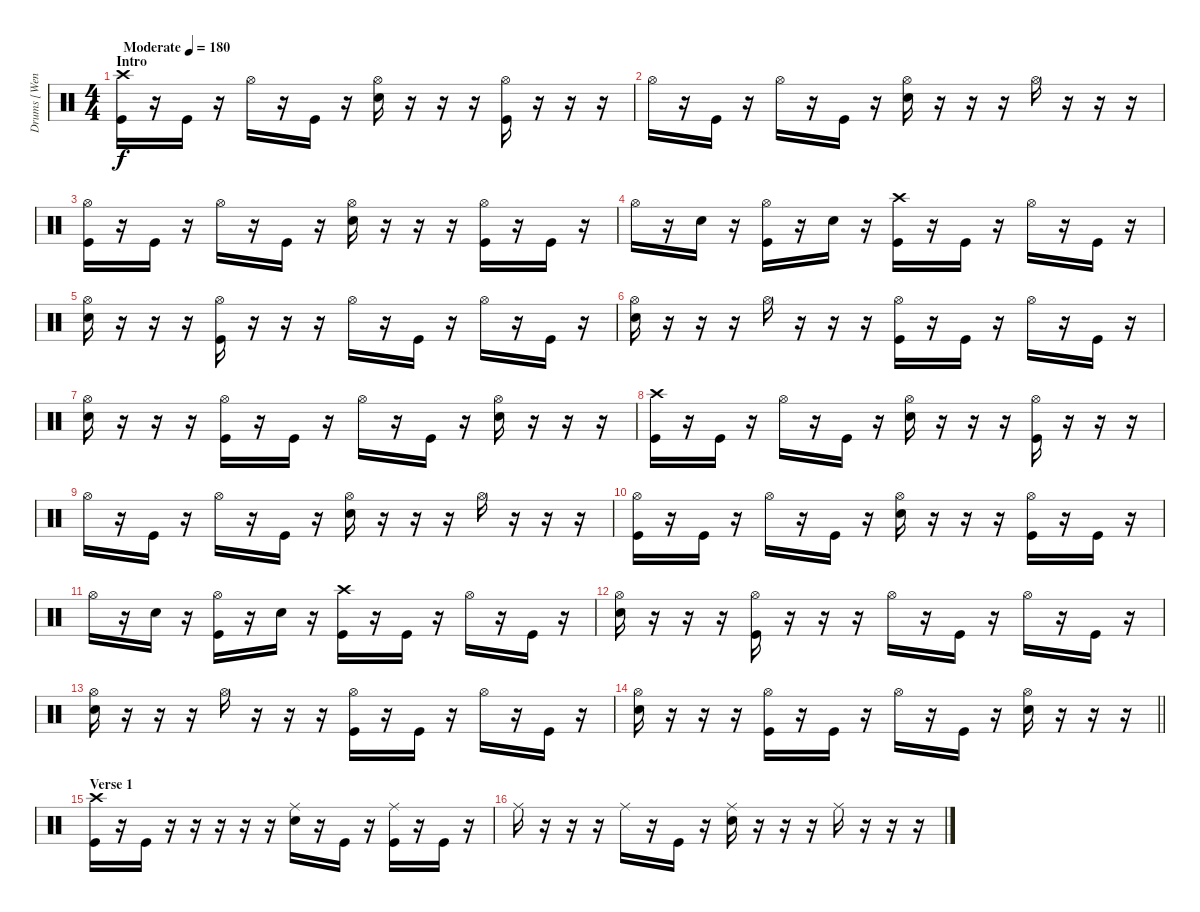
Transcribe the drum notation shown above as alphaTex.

\track ("Drums [Wengren]" "Drums [Wen") {instrument percussion}
\staff {score}
\articulation defaults
\ts (4 4)
\section ("" "Intro")
\tempo (180 "Moderate")
\clef neutral
\ks c
("Crash high (hit)" "Kick (hit)").16{dy f} r.16 "Kick (hit)".16 r.16 "Hi-Hat (open)".16 r.16 "Kick (hit)".16 r.16 ("Hi-Hat (open)" "Electric Snare (hit)").16 r.16 r.16 r.16 ("Hi-Hat (open)" "Kick (hit)").16 r.16 r.16 r.16 |
"Hi-Hat (open)".16 r.16 "Kick (hit)".16 r.16 "Hi-Hat (open)".16 r.16 "Kick (hit)".16 r.16 ("Hi-Hat (open)" "Electric Snare (hit)").16 r.16 r.16 r.16 "Hi-Hat (open)".16 r.16 r.16 r.16 |
("Hi-Hat (open)" "Kick (hit)").16 r.16 "Kick (hit)".16 r.16 "Hi-Hat (open)".16 r.16 "Kick (hit)".16 r.16 ("Hi-Hat (open)" "Electric Snare (hit)").16 r.16 r.16 r.16 ("Hi-Hat (open)" "Kick (hit)").16 r.16 "Kick (hit)".16 r.16 |
"Hi-Hat (open)".16 r.16 "Electric Snare (hit)".16 r.16 ("Hi-Hat (open)" "Kick (hit)").16 r.16 "Electric Snare (hit)".16 r.16 ("Crash high (hit)" "Kick (hit)").16 r.16 "Kick (hit)".16 r.16 "Hi-Hat (open)".16 r.16 "Kick (hit)".16 r.16 |
("Hi-Hat (open)" "Electric Snare (hit)").16 r.16 r.16 r.16 ("Hi-Hat (open)" "Kick (hit)").16 r.16 r.16 r.16 "Hi-Hat (open)".16 r.16 "Kick (hit)".16 r.16 "Hi-Hat (open)".16 r.16 "Kick (hit)".16 r.16 |
("Hi-Hat (open)" "Electric Snare (hit)").16 r.16 r.16 r.16 "Hi-Hat (open)".16 r.16 r.16 r.16 ("Hi-Hat (open)" "Kick (hit)").16 r.16 "Kick (hit)".16 r.16 "Hi-Hat (open)".16 r.16 "Kick (hit)".16 r.16 |
("Hi-Hat (open)" "Electric Snare (hit)").16 r.16 r.16 r.16 ("Hi-Hat (open)" "Kick (hit)").16 r.16 "Kick (hit)".16 r.16 "Hi-Hat (open)".16 r.16 "Kick (hit)".16 r.16 ("Hi-Hat (open)" "Electric Snare (hit)").16 r.16 r.16 r.16 |
("Crash high (hit)" "Kick (hit)").16 r.16 "Kick (hit)".16 r.16 "Hi-Hat (open)".16 r.16 "Kick (hit)".16 r.16 ("Hi-Hat (open)" "Electric Snare (hit)").16 r.16 r.16 r.16 ("Hi-Hat (open)" "Kick (hit)").16 r.16 r.16 r.16 |
"Hi-Hat (open)".16 r.16 "Kick (hit)".16 r.16 "Hi-Hat (open)".16 r.16 "Kick (hit)".16 r.16 ("Hi-Hat (open)" "Electric Snare (hit)").16 r.16 r.16 r.16 "Hi-Hat (open)".16 r.16 r.16 r.16 |
("Hi-Hat (open)" "Kick (hit)").16 r.16 "Kick (hit)".16 r.16 "Hi-Hat (open)".16 r.16 "Kick (hit)".16 r.16 ("Hi-Hat (open)" "Electric Snare (hit)").16 r.16 r.16 r.16 ("Hi-Hat (open)" "Kick (hit)").16 r.16 "Kick (hit)".16 r.16 |
"Hi-Hat (open)".16 r.16 "Electric Snare (hit)".16 r.16 ("Hi-Hat (open)" "Kick (hit)").16 r.16 "Electric Snare (hit)".16 r.16 ("Crash high (hit)" "Kick (hit)").16 r.16 "Kick (hit)".16 r.16 "Hi-Hat (open)".16 r.16 "Kick (hit)".16 r.16 |
("Hi-Hat (open)" "Electric Snare (hit)").16 r.16 r.16 r.16 ("Hi-Hat (open)" "Kick (hit)").16 r.16 r.16 r.16 "Hi-Hat (open)".16 r.16 "Kick (hit)".16 r.16 "Hi-Hat (open)".16 r.16 "Kick (hit)".16 r.16 |
("Hi-Hat (open)" "Electric Snare (hit)").16 r.16 r.16 r.16 "Hi-Hat (open)".16 r.16 r.16 r.16 ("Hi-Hat (open)" "Kick (hit)").16 r.16 "Kick (hit)".16 r.16 "Hi-Hat (open)".16 r.16 "Kick (hit)".16 r.16 |
\barLineRight lightlight
("Hi-Hat (open)" "Electric Snare (hit)").16 r.16 r.16 r.16 ("Hi-Hat (open)" "Kick (hit)").16 r.16 "Kick (hit)".16 r.16 "Hi-Hat (open)".16 r.16 "Kick (hit)".16 r.16 ("Hi-Hat (open)" "Electric Snare (hit)").16 r.16 r.16 r.16 |
\section ("" "Verse 1")
("Crash high (hit)" "Kick (hit)").16 r.16 "Kick (hit)".16 r.16 r.16 r.16 r.16 r.16 ("Ride (middle)" "Electric Snare (hit)").16 r.16 "Kick (hit)".16 r.16 ("Ride (middle)" "Kick (hit)").16 r.16 "Kick (hit)".16 r.16 |
"Ride (middle)".16 r.16 r.16 r.16 "Ride (middle)".16 r.16 "Kick (hit)".16 r.16 ("Ride (middle)" "Electric Snare (hit)").16 r.16 r.16 r.16 "Ride (middle)".16 r.16 r.16 r.16
